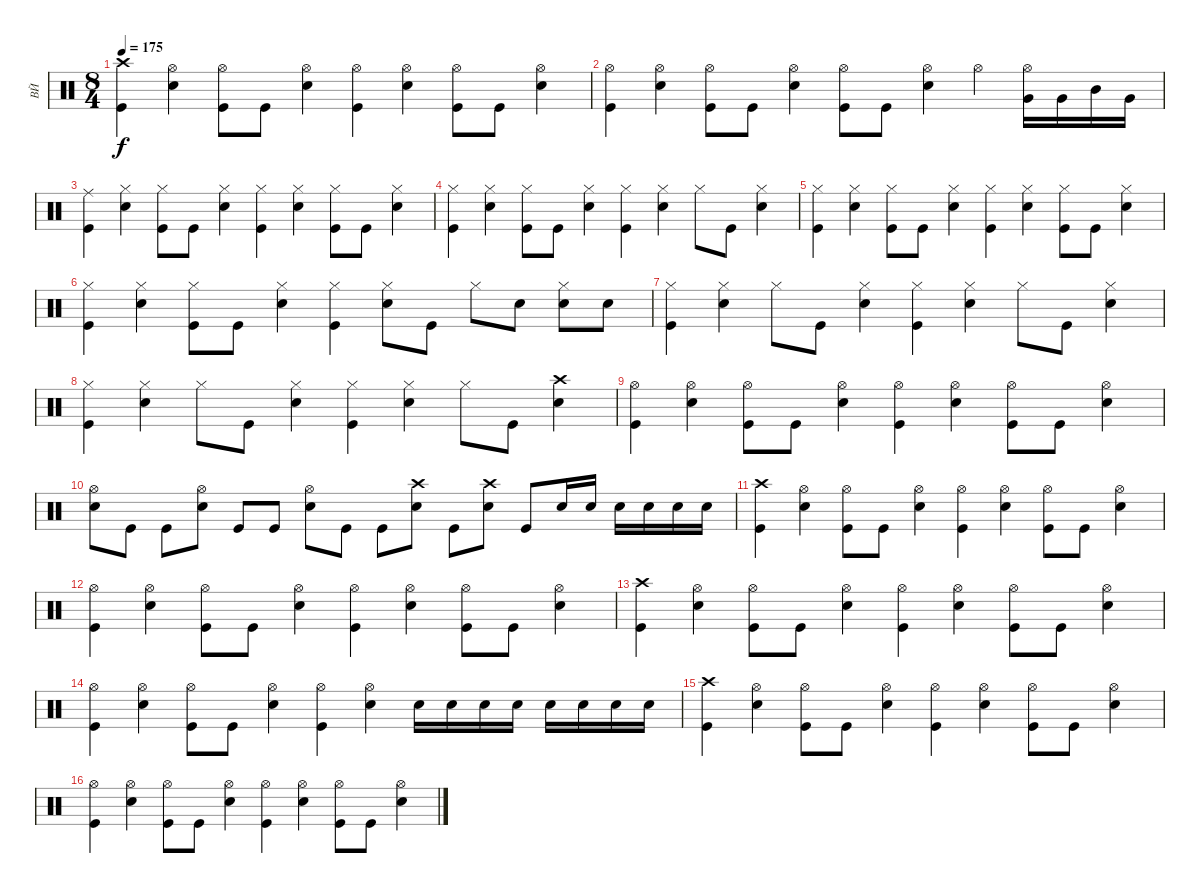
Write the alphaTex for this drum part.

\track ("ВЙ" "ВЙ") {instrument percussion}
\staff {score}
\articulation defaults
\ts (8 4)
\tempo 175
\clef neutral
\ks c
("Crash high (hit)" "Kick (hit)").4{dy f} ("Hi-Hat (open)" "Electric Snare (hit)").4 ("Hi-Hat (open)" "Kick (hit)").8 "Kick (hit)".8 ("Hi-Hat (open)" "Electric Snare (hit)").4 ("Hi-Hat (open)" "Kick (hit)").4 ("Hi-Hat (open)" "Electric Snare (hit)").4 ("Hi-Hat (open)" "Kick (hit)").8 "Kick (hit)".8 ("Hi-Hat (open)" "Electric Snare (hit)").4 |
("Hi-Hat (open)" "Kick (hit)").4 ("Hi-Hat (open)" "Electric Snare (hit)").4 ("Hi-Hat (open)" "Kick (hit)").8 "Kick (hit)".8 ("Hi-Hat (open)" "Electric Snare (hit)").4 ("Hi-Hat (open)" "Kick (hit)").8 "Kick (hit)".8 ("Hi-Hat (open)" "Electric Snare (hit)").4 "Hi-Hat (open)".4 ("Hi-Hat (open)" "Very Low Tom (hit)").16 "Very Low Tom (hit)".16 "Mid Tom (hit)".16 "Very Low Tom (hit)".16 |
("Ride (middle)" "Kick (hit)").4 ("Hi-Hat (closed)" "Electric Snare (hit)").4 ("Hi-Hat (closed)" "Kick (hit)").8 "Kick (hit)".8 ("Hi-Hat (closed)" "Electric Snare (hit)").4 ("Hi-Hat (closed)" "Kick (hit)").4 ("Hi-Hat (closed)" "Electric Snare (hit)").4 ("Hi-Hat (closed)" "Kick (hit)").8 "Kick (hit)".8 ("Hi-Hat (closed)" "Electric Snare (hit)").4 |
("Hi-Hat (closed)" "Kick (hit)").4 ("Hi-Hat (closed)" "Electric Snare (hit)").4 ("Hi-Hat (closed)" "Kick (hit)").8 "Kick (hit)".8 ("Hi-Hat (closed)" "Electric Snare (hit)").4 ("Hi-Hat (closed)" "Kick (hit)").4 ("Hi-Hat (closed)" "Electric Snare (hit)").4 "Hi-Hat (closed)".8 "Kick (hit)".8 ("Hi-Hat (closed)" "Electric Snare (hit)").4 |
("Hi-Hat (closed)" "Kick (hit)").4 ("Hi-Hat (closed)" "Electric Snare (hit)").4 ("Hi-Hat (closed)" "Kick (hit)").8 "Kick (hit)".8 ("Hi-Hat (closed)" "Electric Snare (hit)").4 ("Hi-Hat (closed)" "Kick (hit)").4 ("Hi-Hat (closed)" "Electric Snare (hit)").4 ("Hi-Hat (closed)" "Kick (hit)").8 "Kick (hit)".8 ("Hi-Hat (closed)" "Electric Snare (hit)").4 |
("Hi-Hat (closed)" "Kick (hit)").4 ("Hi-Hat (closed)" "Electric Snare (hit)").4 ("Hi-Hat (closed)" "Kick (hit)").8 "Kick (hit)".8 ("Hi-Hat (closed)" "Electric Snare (hit)").4 ("Hi-Hat (closed)" "Kick (hit)").4 ("Hi-Hat (closed)" "Electric Snare (hit)").8 "Kick (hit)".8 "Hi-Hat (closed)".8 "Electric Snare (hit)".8 ("Hi-Hat (closed)" "Electric Snare (hit)").8 "Electric Snare (hit)".8 |
("Hi-Hat (closed)" "Kick (hit)").4 ("Hi-Hat (closed)" "Electric Snare (hit)").4 "Hi-Hat (closed)".8 "Kick (hit)".8 ("Hi-Hat (closed)" "Electric Snare (hit)").4 ("Hi-Hat (closed)" "Kick (hit)").4 ("Hi-Hat (closed)" "Electric Snare (hit)").4 "Hi-Hat (closed)".8 "Kick (hit)".8 ("Hi-Hat (closed)" "Electric Snare (hit)").4 |
("Hi-Hat (closed)" "Kick (hit)").4 ("Hi-Hat (closed)" "Electric Snare (hit)").4 "Hi-Hat (closed)".8 "Kick (hit)".8 ("Hi-Hat (closed)" "Electric Snare (hit)").4 ("Hi-Hat (closed)" "Kick (hit)").4 ("Hi-Hat (closed)" "Electric Snare (hit)").4 "Hi-Hat (closed)".8 "Kick (hit)".8 ("Crash high (hit)" "Electric Snare (hit)").4 |
("Hi-Hat (open)" "Kick (hit)").4 ("Hi-Hat (open)" "Electric Snare (hit)").4 ("Hi-Hat (open)" "Kick (hit)").8 "Kick (hit)".8 ("Hi-Hat (open)" "Electric Snare (hit)").4 ("Hi-Hat (open)" "Kick (hit)").4 ("Hi-Hat (open)" "Electric Snare (hit)").4 ("Hi-Hat (open)" "Kick (hit)").8 "Kick (hit)".8 ("Hi-Hat (open)" "Electric Snare (hit)").4 |
("Hi-Hat (open)" "Electric Snare (hit)").8 "Kick (hit)".8 "Kick (hit)".8 ("Hi-Hat (open)" "Electric Snare (hit)").8 "Kick (hit)".8 "Kick (hit)".8 ("Hi-Hat (open)" "Electric Snare (hit)").8 "Kick (hit)".8 "Kick (hit)".8 ("Crash high (hit)" "Electric Snare (hit)").8 "Kick (hit)".8 ("Crash high (hit)" "Electric Snare (hit)").8 "Kick (hit)".8 "Electric Snare (hit)".16 "Electric Snare (hit)".16 "Electric Snare (hit)".16 "Electric Snare (hit)".16 "Electric Snare (hit)".16 "Electric Snare (hit)".16 |
("Crash high (hit)" "Kick (hit)").4 ("Hi-Hat (open)" "Electric Snare (hit)").4 ("Hi-Hat (open)" "Kick (hit)").8 "Kick (hit)".8 ("Hi-Hat (open)" "Electric Snare (hit)").4 ("Hi-Hat (open)" "Kick (hit)").4 ("Hi-Hat (open)" "Electric Snare (hit)").4 ("Hi-Hat (open)" "Kick (hit)").8 "Kick (hit)".8 ("Hi-Hat (open)" "Electric Snare (hit)").4 |
("Hi-Hat (open)" "Kick (hit)").4 ("Hi-Hat (open)" "Electric Snare (hit)").4 ("Hi-Hat (open)" "Kick (hit)").8 "Kick (hit)".8 ("Hi-Hat (open)" "Electric Snare (hit)").4 ("Hi-Hat (open)" "Kick (hit)").4 ("Hi-Hat (open)" "Electric Snare (hit)").4 ("Hi-Hat (open)" "Kick (hit)").8 "Kick (hit)".8 ("Hi-Hat (open)" "Electric Snare (hit)").4 |
("Crash high (hit)" "Kick (hit)").4 ("Hi-Hat (open)" "Electric Snare (hit)").4 ("Hi-Hat (open)" "Kick (hit)").8 "Kick (hit)".8 ("Hi-Hat (open)" "Electric Snare (hit)").4 ("Hi-Hat (open)" "Kick (hit)").4 ("Hi-Hat (open)" "Electric Snare (hit)").4 ("Hi-Hat (open)" "Kick (hit)").8 "Kick (hit)".8 ("Hi-Hat (open)" "Electric Snare (hit)").4 |
("Hi-Hat (open)" "Kick (hit)").4 ("Hi-Hat (open)" "Electric Snare (hit)").4 ("Hi-Hat (open)" "Kick (hit)").8 "Kick (hit)".8 ("Hi-Hat (open)" "Electric Snare (hit)").4 ("Hi-Hat (open)" "Kick (hit)").4 ("Hi-Hat (open)" "Electric Snare (hit)").4 "Electric Snare (hit)".16 "Electric Snare (hit)".16 "Electric Snare (hit)".16 "Electric Snare (hit)".16 "Electric Snare (hit)".16 "Electric Snare (hit)".16 "Electric Snare (hit)".16 "Electric Snare (hit)".16 |
("Crash high (hit)" "Kick (hit)").4 ("Hi-Hat (open)" "Electric Snare (hit)").4 ("Hi-Hat (open)" "Kick (hit)").8 "Kick (hit)".8 ("Hi-Hat (open)" "Electric Snare (hit)").4 ("Hi-Hat (open)" "Kick (hit)").4 ("Hi-Hat (open)" "Electric Snare (hit)").4 ("Hi-Hat (open)" "Kick (hit)").8 "Kick (hit)".8 ("Hi-Hat (open)" "Electric Snare (hit)").4 |
("Hi-Hat (open)" "Kick (hit)").4 ("Hi-Hat (open)" "Electric Snare (hit)").4 ("Hi-Hat (open)" "Kick (hit)").8 "Kick (hit)".8 ("Hi-Hat (open)" "Electric Snare (hit)").4 ("Hi-Hat (open)" "Kick (hit)").4 ("Hi-Hat (open)" "Electric Snare (hit)").4 ("Hi-Hat (open)" "Kick (hit)").8 "Kick (hit)".8 ("Hi-Hat (open)" "Electric Snare (hit)").4
